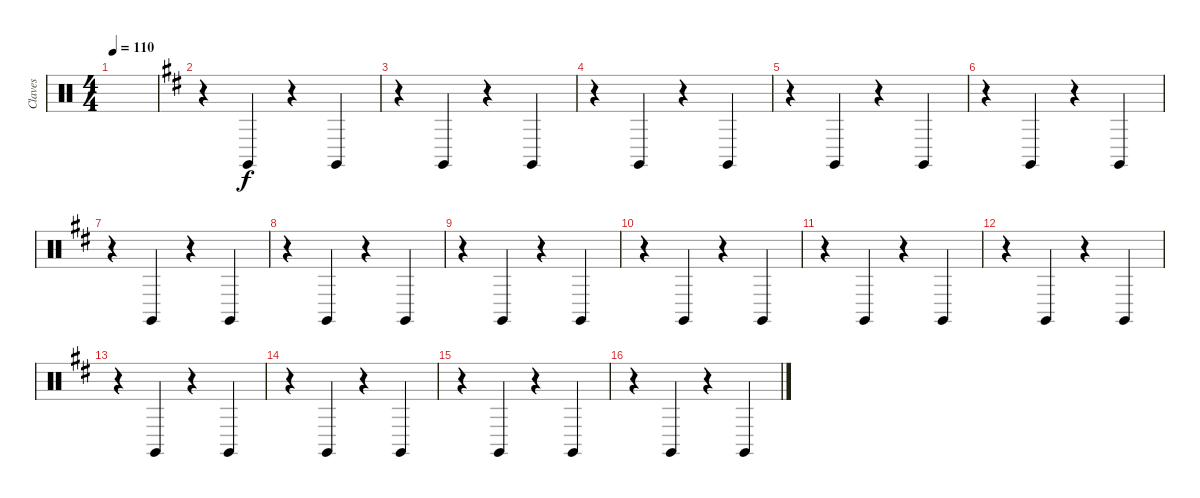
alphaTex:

\track ("Claves" "Claves") {instrument percussion}
\staff {score}
\articulation defaults
\ts (4 4)
\tempo 110
\clef neutral
\ks c
|
\ks d
r.4 "Claves (hit)".4 r.4 "Claves (hit)".4 |
r.4 "Claves (hit)".4 r.4 "Claves (hit)".4 |
r.4 "Claves (hit)".4 r.4 "Claves (hit)".4 |
r.4 "Claves (hit)".4 r.4 "Claves (hit)".4 |
r.4 "Claves (hit)".4 r.4 "Claves (hit)".4 |
r.4 "Claves (hit)".4 r.4 "Claves (hit)".4 |
r.4 "Claves (hit)".4 r.4 "Claves (hit)".4 |
r.4 "Claves (hit)".4 r.4 "Claves (hit)".4 |
r.4 "Claves (hit)".4 r.4 "Claves (hit)".4 |
r.4 "Claves (hit)".4 r.4 "Claves (hit)".4 |
r.4 "Claves (hit)".4 r.4 "Claves (hit)".4 |
r.4 "Claves (hit)".4 r.4 "Claves (hit)".4 |
r.4 "Claves (hit)".4 r.4 "Claves (hit)".4 |
r.4 "Claves (hit)".4 r.4 "Claves (hit)".4 |
r.4 "Claves (hit)".4 r.4 "Claves (hit)".4
